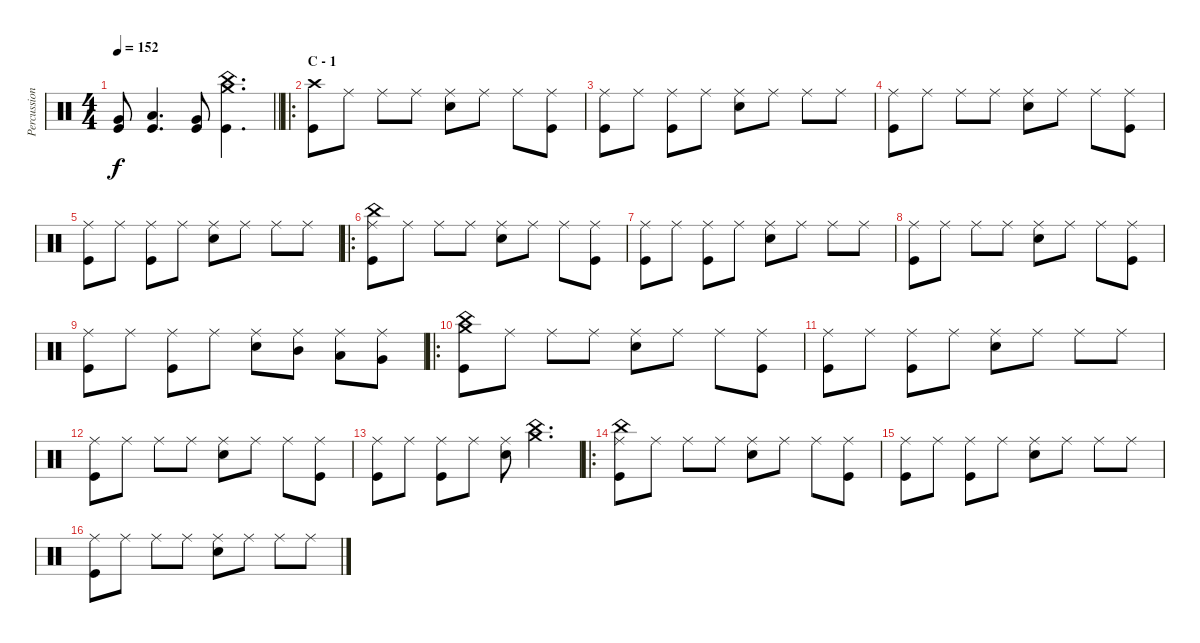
\track ("Percussion" "Percussion") {instrument percussion}
\staff {score}
\articulation defaults
\ts (4 4)
\tempo 152
\clef neutral
\barLineRight lightlight
\ks c
("Very Low Tom (hit)" "Kick (hit)").8{dy f} ("Low Tom (hit)" "Kick (hit)").4{d} ("Very Low Tom (hit)" "Kick (hit)").8 ("Crash medium (hit)" "China (hit)" "Kick (hit)").4{d} |
\ro
\section ("" "C - 1")
("Crash high (hit)" "Kick (hit)").8 "Ride (middle)".8 "Ride (middle)".8 "Ride (middle)".8 ("Ride (middle)" "Snare (hit) 2").8 "Ride (middle)".8 "Ride (middle)".8 ("Ride (middle)" "Kick (hit)").8 |
("Ride (middle)" "Kick (hit)").8 "Ride (middle)".8 ("Ride (middle)" "Kick (hit)").8 "Ride (middle)".8 ("Ride (middle)" "Snare (hit) 2").8 "Ride (middle)".8 "Ride (middle)".8 "Ride (middle)".8 |
("Ride (middle)" "Kick (hit)").8 "Ride (middle)".8 "Ride (middle)".8 "Ride (middle)".8 ("Ride (middle)" "Snare (hit) 2").8 "Ride (middle)".8 "Ride (middle)".8 ("Ride (middle)" "Kick (hit)").8 |
("Ride (middle)" "Kick (hit)").8 "Ride (middle)".8 ("Ride (middle)" "Kick (hit)").8 "Ride (middle)".8 ("Ride (middle)" "Snare (hit) 2").8 "Ride (middle)".8 "Ride (middle)".8 "Ride (middle)".8 |
\ro
("China (hit)" "Ride (middle)" "Kick (hit)").8 "Ride (middle)".8 "Ride (middle)".8 "Ride (middle)".8 ("Ride (middle)" "Snare (hit) 2").8 "Ride (middle)".8 "Ride (middle)".8 ("Ride (middle)" "Kick (hit)").8 |
("Ride (middle)" "Kick (hit)").8 "Ride (middle)".8 ("Ride (middle)" "Kick (hit)").8 "Ride (middle)".8 ("Ride (middle)" "Snare (hit) 2").8 "Ride (middle)".8 "Ride (middle)".8 "Ride (middle)".8 |
("Ride (middle)" "Kick (hit)").8 "Ride (middle)".8 "Ride (middle)".8 "Ride (middle)".8 ("Ride (middle)" "Snare (hit) 2").8 "Ride (middle)".8 "Ride (middle)".8 ("Ride (middle)" "Kick (hit)").8 |
("Ride (middle)" "Kick (hit)").8 "Ride (middle)".8 ("Ride (middle)" "Kick (hit)").8 "Ride (middle)".8 ("Ride (middle)" "Snare (hit) 2").8 ("Ride (middle)" "Mid Tom (hit)").8 ("Ride (middle)" "Low Tom (hit)").8 ("Ride (middle)" "Very Low Tom (hit)").8 |
\ro
("China (hit)" "Crash medium (hit)" "Kick (hit)").8 "Ride (middle)".8 "Ride (middle)".8 "Ride (middle)".8 ("Ride (middle)" "Snare (hit) 2").8 "Ride (middle)".8 "Ride (middle)".8 ("Ride (middle)" "Kick (hit)").8 |
("Ride (middle)" "Kick (hit)").8 "Ride (middle)".8 ("Ride (middle)" "Kick (hit)").8 "Ride (middle)".8 ("Ride (middle)" "Snare (hit) 2").8 "Ride (middle)".8 "Ride (middle)".8 "Ride (middle)".8 |
("Ride (middle)" "Kick (hit)").8 "Ride (middle)".8 "Ride (middle)".8 "Ride (middle)".8 ("Ride (middle)" "Snare (hit) 2").8 "Ride (middle)".8 "Ride (middle)".8 ("Ride (middle)" "Kick (hit)").8 |
("Ride (middle)" "Kick (hit)").8 "Ride (middle)".8 ("Ride (middle)" "Kick (hit)").8 "Ride (middle)".8 ("Ride (middle)" "Snare (hit) 2").8 ("China (hit)" "Crash medium (hit)").4{d} |
\ro
("China (hit)" "Ride (middle)" "Kick (hit)").8 "Ride (middle)".8 "Ride (middle)".8 "Ride (middle)".8 ("Ride (middle)" "Snare (hit) 2").8 "Ride (middle)".8 "Ride (middle)".8 ("Ride (middle)" "Kick (hit)").8 |
("Ride (middle)" "Kick (hit)").8 "Ride (middle)".8 ("Ride (middle)" "Kick (hit)").8 "Ride (middle)".8 ("Ride (middle)" "Snare (hit) 2").8 "Ride (middle)".8 "Ride (middle)".8 "Ride (middle)".8 |
("Ride (middle)" "Kick (hit)").8 "Ride (middle)".8 "Ride (middle)".8 "Ride (middle)".8 ("Ride (middle)" "Snare (hit) 2").8 "Ride (middle)".8 "Ride (middle)".8 "Ride (middle)".8
